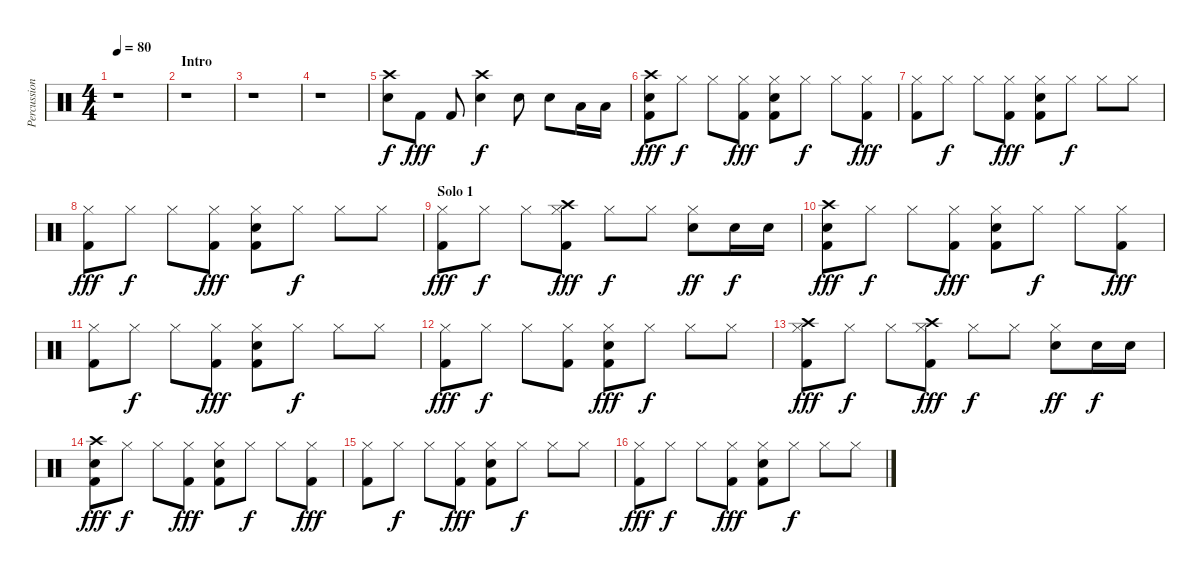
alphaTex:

\track ("Percussion" "Percussion") {instrument percussion}
\staff {score}
\articulation defaults
\ts (4 4)
\tempo 80
\clef neutral
\ks c
r.1{dy f} |
\section ("" "Intro")
r.1 |
r.1 |
r.1 |
("Crash high (hit)" "Snare (hit) 2").8 "Kick (hit) 2".8{dy fff} "Kick (hit) 2".8 ("Crash high (hit)" "Snare (hit) 2").4{dy f} "Snare (hit) 2".8 "Snare (hit) 2".8 "Low Tom (hit)".16 "Low Floor Tom (hit)".16 |
("Crash high (hit)" "Snare (hit) 2" "Kick (hit) 2").8{dy fff} "Hi-Hat (closed)".8{dy f} "Hi-Hat (closed)".8 ("Kick (hit) 2" "Hi-Hat (closed)").8{dy fff} ("Snare (hit) 2" "Kick (hit) 2" "Hi-Hat (closed)").8 "Hi-Hat (closed)".8{dy f} "Hi-Hat (closed)".8 ("Kick (hit) 2" "Hi-Hat (closed)").8{dy fff} |
("Kick (hit) 2" "Hi-Hat (closed)").8 "Hi-Hat (closed)".8{dy f} "Hi-Hat (closed)".8 ("Kick (hit) 2" "Hi-Hat (closed)").8{dy fff} ("Snare (hit) 2" "Kick (hit) 2" "Hi-Hat (closed)").8 "Hi-Hat (closed)".8{dy f} "Hi-Hat (closed)".8 "Hi-Hat (closed)".8 |
("Kick (hit) 2" "Hi-Hat (closed)").8{dy fff} "Hi-Hat (closed)".8{dy f} "Hi-Hat (closed)".8 ("Kick (hit) 2" "Hi-Hat (closed)").8{dy fff} ("Snare (hit) 2" "Kick (hit) 2" "Hi-Hat (closed)").8 "Hi-Hat (closed)".8{dy f} "Hi-Hat (closed)".8 "Hi-Hat (closed)".8 |
\section ("" "Solo 1")
("Kick (hit) 2" "Hi-Hat (closed)").8{dy fff} "Hi-Hat (closed)".8{dy f} "Hi-Hat (closed)".8 ("Crash high (hit)" "Kick (hit) 2" "Hi-Hat (closed)").8{dy fff} "Hi-Hat (closed)".8{dy f} "Hi-Hat (closed)".8 ("Snare (hit) 2" "Hi-Hat (closed)").8{dy ff} "Snare (hit) 2".16{dy f} "Snare (hit) 2".16 |
("Crash high (hit)" "Snare (hit) 2" "Kick (hit) 2").8{dy fff} "Hi-Hat (closed)".8{dy f} "Hi-Hat (closed)".8 ("Kick (hit) 2" "Hi-Hat (closed)").8{dy fff} ("Snare (hit) 2" "Kick (hit) 2" "Hi-Hat (closed)").8 "Hi-Hat (closed)".8{dy f} "Hi-Hat (closed)".8 ("Kick (hit) 2" "Hi-Hat (closed)").8{dy fff} |
("Kick (hit) 2" "Hi-Hat (closed)").8 "Hi-Hat (closed)".8{dy f} "Hi-Hat (closed)".8 ("Kick (hit) 2" "Hi-Hat (closed)").8{dy fff} ("Snare (hit) 2" "Kick (hit) 2" "Hi-Hat (closed)").8 "Hi-Hat (closed)".8{dy f} "Hi-Hat (closed)".8 "Hi-Hat (closed)".8 |
("Kick (hit) 2" "Hi-Hat (closed)").8{dy fff} "Hi-Hat (closed)".8{dy f} "Hi-Hat (closed)".8 ("Kick (hit) 2" "Hi-Hat (closed)").8 ("Snare (hit) 2" "Kick (hit) 2" "Hi-Hat (closed)").8{dy fff} "Hi-Hat (closed)".8{dy f} "Hi-Hat (closed)".8 "Hi-Hat (closed)".8 |
("Crash high (hit)" "Kick (hit) 2" "Hi-Hat (closed)").8{dy fff} "Hi-Hat (closed)".8{dy f} "Hi-Hat (closed)".8 ("Crash high (hit)" "Kick (hit) 2" "Hi-Hat (closed)").8{dy fff} "Hi-Hat (closed)".8{dy f} "Hi-Hat (closed)".8 ("Snare (hit) 2" "Hi-Hat (closed)").8{dy ff} "Snare (hit) 2".16{dy f} "Snare (hit) 2".16 |
("Crash high (hit)" "Snare (hit) 2" "Kick (hit) 2").8{dy fff} "Hi-Hat (closed)".8{dy f} "Hi-Hat (closed)".8 ("Kick (hit) 2" "Hi-Hat (closed)").8{dy fff} ("Snare (hit) 2" "Kick (hit) 2" "Hi-Hat (closed)").8 "Hi-Hat (closed)".8{dy f} "Hi-Hat (closed)".8 ("Kick (hit) 2" "Hi-Hat (closed)").8{dy fff} |
("Kick (hit) 2" "Hi-Hat (closed)").8 "Hi-Hat (closed)".8{dy f} "Hi-Hat (closed)".8 ("Kick (hit) 2" "Hi-Hat (closed)").8{dy fff} ("Snare (hit) 2" "Kick (hit) 2" "Hi-Hat (closed)").8 "Hi-Hat (closed)".8{dy f} "Hi-Hat (closed)".8 "Hi-Hat (closed)".8 |
("Kick (hit) 2" "Hi-Hat (closed)").8{dy fff} "Hi-Hat (closed)".8{dy f} "Hi-Hat (closed)".8 ("Kick (hit) 2" "Hi-Hat (closed)").8{dy fff} ("Snare (hit) 2" "Kick (hit) 2" "Hi-Hat (closed)").8 "Hi-Hat (closed)".8{dy f} "Hi-Hat (closed)".8 "Hi-Hat (closed)".8
